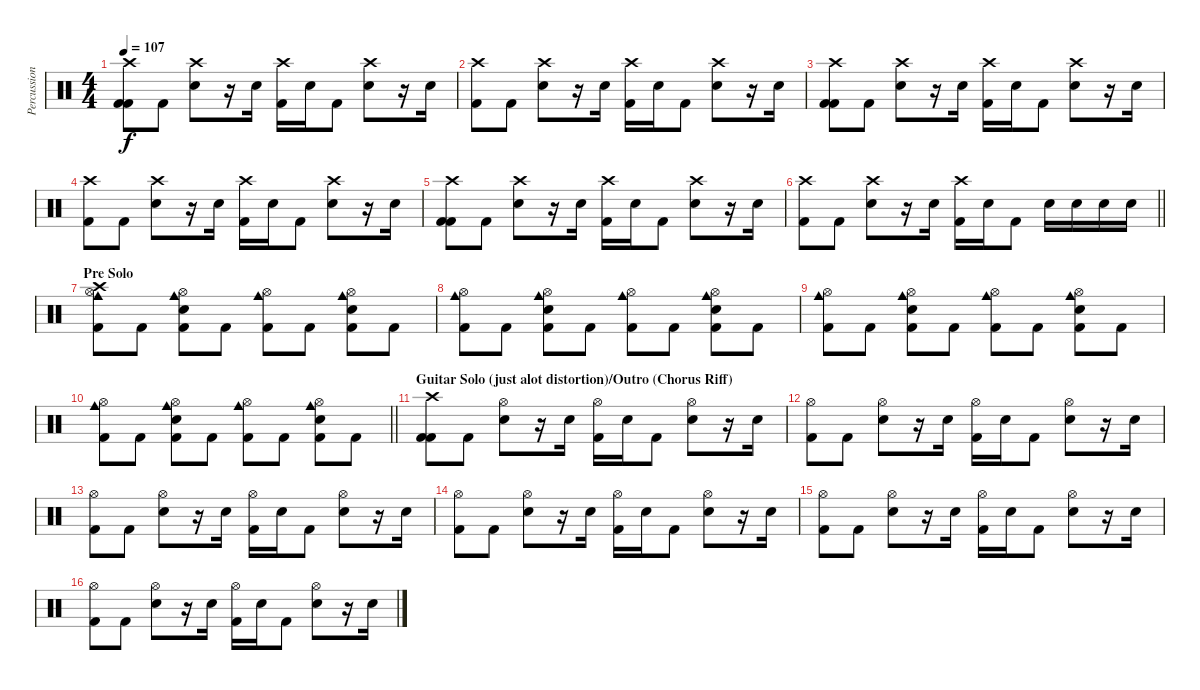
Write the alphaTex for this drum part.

\track ("Percussion" "Percussion") {instrument percussion}
\staff {score}
\articulation defaults
\ts (4 4)
\tempo 107
\clef neutral
\ks c
("Kick (hit) 2" "Crash high (hit)" "Kick (hit) 2").8{dy f} "Kick (hit) 2".8 ("Crash high (hit)" "Snare (hit) 2").8 r.16 "Snare (hit) 2".16 ("Crash high (hit)" "Kick (hit) 2").16 "Snare (hit) 2".16 "Kick (hit) 2".8 ("Crash high (hit)" "Snare (hit) 2").8 r.16 "Snare (hit) 2".16 |
("Crash high (hit)" "Kick (hit) 2").8 "Kick (hit) 2".8 ("Crash high (hit)" "Snare (hit) 2").8 r.16 "Snare (hit) 2".16 ("Crash high (hit)" "Kick (hit) 2").16 "Snare (hit) 2".16 "Kick (hit) 2".8 ("Crash high (hit)" "Snare (hit) 2").8 r.16 "Snare (hit) 2".16 |
("Kick (hit) 2" "Crash high (hit)" "Kick (hit) 2").8 "Kick (hit) 2".8 ("Crash high (hit)" "Snare (hit) 2").8 r.16 "Snare (hit) 2".16 ("Crash high (hit)" "Kick (hit) 2").16 "Snare (hit) 2".16 "Kick (hit) 2".8 ("Crash high (hit)" "Snare (hit) 2").8 r.16 "Snare (hit) 2".16 |
("Crash high (hit)" "Kick (hit) 2").8 "Kick (hit) 2".8 ("Crash high (hit)" "Snare (hit) 2").8 r.16 "Snare (hit) 2".16 ("Crash high (hit)" "Kick (hit) 2").16 "Snare (hit) 2".16 "Kick (hit) 2".8 ("Crash high (hit)" "Snare (hit) 2").8 r.16 "Snare (hit) 2".16 |
("Kick (hit) 2" "Crash high (hit)" "Kick (hit) 2").8 "Kick (hit) 2".8 ("Crash high (hit)" "Snare (hit) 2").8 r.16 "Snare (hit) 2".16 ("Crash high (hit)" "Kick (hit) 2").16 "Snare (hit) 2".16 "Kick (hit) 2".8 ("Crash high (hit)" "Snare (hit) 2").8 r.16 "Snare (hit) 2".16 |
\barLineRight lightlight
("Crash high (hit)" "Kick (hit) 2").8 "Kick (hit) 2".8 ("Crash high (hit)" "Snare (hit) 2").8 r.16 "Snare (hit) 2".16 ("Crash high (hit)" "Kick (hit) 2").16 "Snare (hit) 2".16 "Kick (hit) 2".8 "Snare (hit) 2".16 "Snare (hit) 2".16 "Snare (hit) 2".16 "Snare (hit) 2".16 |
\section ("" "Pre Solo")
("Crash high (hit)" "Cowbell medium (hit)" "Hi-Hat (open)" "Kick (hit) 2").8 "Kick (hit) 2".8 ("Snare (hit) 2" "Cowbell medium (hit)" "Hi-Hat (open)" "Kick (hit) 2").8 "Kick (hit) 2".8 ("Cowbell medium (hit)" "Hi-Hat (open)" "Kick (hit) 2").8 "Kick (hit) 2".8 ("Snare (hit) 2" "Cowbell medium (hit)" "Hi-Hat (open)" "Kick (hit) 2").8 "Kick (hit) 2".8 |
("Cowbell medium (hit)" "Hi-Hat (open)" "Kick (hit) 2").8 "Kick (hit) 2".8 ("Snare (hit) 2" "Cowbell medium (hit)" "Hi-Hat (open)" "Kick (hit) 2").8 "Kick (hit) 2".8 ("Cowbell medium (hit)" "Hi-Hat (open)" "Kick (hit) 2").8 "Kick (hit) 2".8 ("Snare (hit) 2" "Cowbell medium (hit)" "Hi-Hat (open)" "Kick (hit) 2").8 "Kick (hit) 2".8 |
("Cowbell medium (hit)" "Hi-Hat (open)" "Kick (hit) 2").8 "Kick (hit) 2".8 ("Snare (hit) 2" "Cowbell medium (hit)" "Hi-Hat (open)" "Kick (hit) 2").8 "Kick (hit) 2".8 ("Cowbell medium (hit)" "Hi-Hat (open)" "Kick (hit) 2").8 "Kick (hit) 2".8 ("Snare (hit) 2" "Cowbell medium (hit)" "Hi-Hat (open)" "Kick (hit) 2").8 "Kick (hit) 2".8 |
\barLineRight lightlight
("Cowbell medium (hit)" "Hi-Hat (open)" "Kick (hit) 2").8 "Kick (hit) 2".8 ("Snare (hit) 2" "Cowbell medium (hit)" "Hi-Hat (open)" "Kick (hit) 2").8 "Kick (hit) 2".8 ("Cowbell medium (hit)" "Hi-Hat (open)" "Kick (hit) 2").8 "Kick (hit) 2".8 ("Snare (hit) 2" "Cowbell medium (hit)" "Hi-Hat (open)" "Kick (hit) 2").8 "Kick (hit) 2".8 |
\section ("" "Guitar Solo (just alot distortion)/Outro (Chorus Riff)")
("Kick (hit) 2" "Crash high (hit)" "Kick (hit) 2").8 "Kick (hit) 2".8 ("Hi-Hat (open)" "Snare (hit) 2").8 r.16 "Snare (hit) 2".16 ("Hi-Hat (open)" "Kick (hit) 2").16 "Snare (hit) 2".16 "Kick (hit) 2".8 ("Hi-Hat (open)" "Snare (hit) 2").8 r.16 "Snare (hit) 2".16 |
("Hi-Hat (open)" "Kick (hit) 2").8 "Kick (hit) 2".8 ("Hi-Hat (open)" "Snare (hit) 2").8 r.16 "Snare (hit) 2".16 ("Hi-Hat (open)" "Kick (hit) 2").16 "Snare (hit) 2".16 "Kick (hit) 2".8 ("Hi-Hat (open)" "Snare (hit) 2").8 r.16 "Snare (hit) 2".16 |
("Hi-Hat (open)" "Kick (hit) 2").8 "Kick (hit) 2".8 ("Hi-Hat (open)" "Snare (hit) 2").8 r.16 "Snare (hit) 2".16 ("Hi-Hat (open)" "Kick (hit) 2").16 "Snare (hit) 2".16 "Kick (hit) 2".8 ("Hi-Hat (open)" "Snare (hit) 2").8 r.16 "Snare (hit) 2".16 |
("Hi-Hat (open)" "Kick (hit) 2").8 "Kick (hit) 2".8 ("Hi-Hat (open)" "Snare (hit) 2").8 r.16 "Snare (hit) 2".16 ("Hi-Hat (open)" "Kick (hit) 2").16 "Snare (hit) 2".16 "Kick (hit) 2".8 ("Hi-Hat (open)" "Snare (hit) 2").8 r.16 "Snare (hit) 2".16 |
("Hi-Hat (open)" "Kick (hit) 2").8 "Kick (hit) 2".8 ("Hi-Hat (open)" "Snare (hit) 2").8 r.16 "Snare (hit) 2".16 ("Hi-Hat (open)" "Kick (hit) 2").16 "Snare (hit) 2".16 "Kick (hit) 2".8 ("Hi-Hat (open)" "Snare (hit) 2").8 r.16 "Snare (hit) 2".16 |
("Hi-Hat (open)" "Kick (hit) 2").8 "Kick (hit) 2".8 ("Hi-Hat (open)" "Snare (hit) 2").8 r.16 "Snare (hit) 2".16 ("Hi-Hat (open)" "Kick (hit) 2").16 "Snare (hit) 2".16 "Kick (hit) 2".8 ("Hi-Hat (open)" "Snare (hit) 2").8 r.16 "Snare (hit) 2".16
